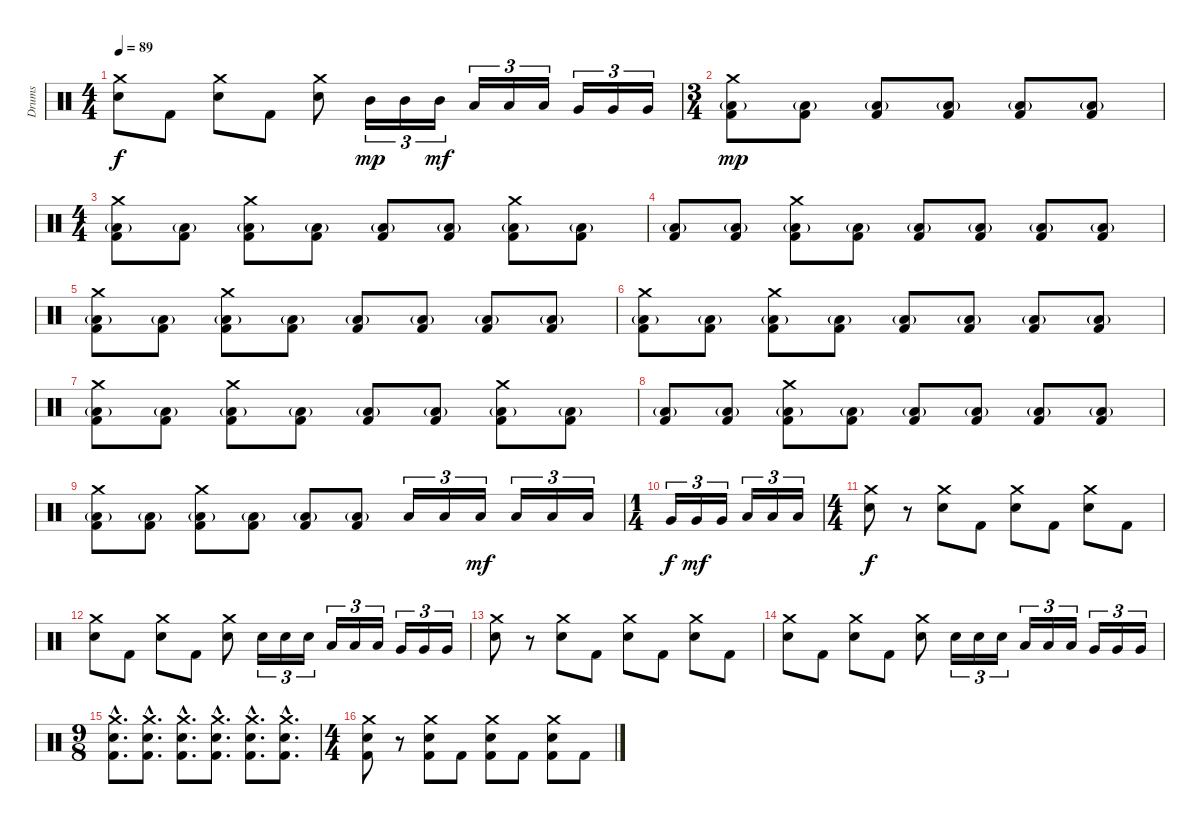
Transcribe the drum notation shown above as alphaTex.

\track ("Drums" "Drums") {instrument percussion}
\staff {score}
\articulation defaults
\ts (4 4)
\tempo 89
\clef neutral
\ks c
("Crash medium (hit)" "Electric Snare (hit)").8{dy f} "Kick (hit) 2".8 ("Crash medium (hit)" "Electric Snare (hit)").8 "Kick (hit) 2".8 ("Crash medium (hit)" "Electric Snare (hit)").8 "Mid Tom (hit)".16{tu (3 2) dy mp} "Mid Tom (hit)".16{tu (3 2)} "Mid Tom (hit)".16{tu (3 2) dy mf} "Low Tom (hit)".16{tu (3 2)} "Low Tom (hit)".16{tu (3 2)} "Low Tom (hit)".16{tu (3 2)} "Very Low Tom (hit)".16{tu (3 2)} "Very Low Tom (hit)".16{tu (3 2)} "Very Low Tom (hit)".16{tu (3 2)} |
\ts (3 4)
("Crash medium (hit)" "Low Floor Tom (hit)"{g} "Kick (hit) 2").8{dy mp} ("Low Floor Tom (hit)"{g} "Kick (hit) 2").8 ("Low Floor Tom (hit)"{g} "Kick (hit) 2").8 ("Low Floor Tom (hit)"{g} "Kick (hit) 2").8 ("Low Floor Tom (hit)"{g} "Kick (hit) 2").8 ("Low Floor Tom (hit)"{g} "Kick (hit) 2").8 |
\ts (4 4)
("Crash medium (hit)" "Low Floor Tom (hit)"{g} "Kick (hit) 2").8 ("Low Floor Tom (hit)"{g} "Kick (hit) 2").8 ("Crash medium (hit)" "Low Floor Tom (hit)"{g} "Kick (hit) 2").8 ("Low Floor Tom (hit)"{g} "Kick (hit) 2").8 ("Low Floor Tom (hit)"{g} "Kick (hit) 2").8 ("Low Floor Tom (hit)"{g} "Kick (hit) 2").8 ("Crash medium (hit)" "Low Floor Tom (hit)"{g} "Kick (hit) 2").8 ("Low Floor Tom (hit)"{g} "Kick (hit) 2").8 |
("Low Floor Tom (hit)"{g} "Kick (hit) 2").8 ("Low Floor Tom (hit)"{g} "Kick (hit) 2").8 ("Crash medium (hit)" "Low Floor Tom (hit)"{g} "Kick (hit) 2").8 ("Low Floor Tom (hit)"{g} "Kick (hit) 2").8 ("Low Floor Tom (hit)"{g} "Kick (hit) 2").8 ("Low Floor Tom (hit)"{g} "Kick (hit) 2").8 ("Low Floor Tom (hit)"{g} "Kick (hit) 2").8 ("Low Floor Tom (hit)"{g} "Kick (hit) 2").8 |
("Crash medium (hit)" "Low Floor Tom (hit)"{g} "Kick (hit) 2").8 ("Low Floor Tom (hit)"{g} "Kick (hit) 2").8 ("Crash medium (hit)" "Low Floor Tom (hit)"{g} "Kick (hit) 2").8 ("Low Floor Tom (hit)"{g} "Kick (hit) 2").8 ("Low Floor Tom (hit)"{g} "Kick (hit) 2").8 ("Low Floor Tom (hit)"{g} "Kick (hit) 2").8 ("Low Floor Tom (hit)"{g} "Kick (hit) 2").8 ("Low Floor Tom (hit)"{g} "Kick (hit) 2").8 |
("Crash medium (hit)" "Low Floor Tom (hit)"{g} "Kick (hit) 2").8 ("Low Floor Tom (hit)"{g} "Kick (hit) 2").8 ("Crash medium (hit)" "Low Floor Tom (hit)"{g} "Kick (hit) 2").8 ("Low Floor Tom (hit)"{g} "Kick (hit) 2").8 ("Low Floor Tom (hit)"{g} "Kick (hit) 2").8 ("Low Floor Tom (hit)"{g} "Kick (hit) 2").8 ("Low Floor Tom (hit)"{g} "Kick (hit) 2").8 ("Low Floor Tom (hit)"{g} "Kick (hit) 2").8 |
("Crash medium (hit)" "Low Floor Tom (hit)"{g} "Kick (hit) 2").8 ("Low Floor Tom (hit)"{g} "Kick (hit) 2").8 ("Crash medium (hit)" "Low Floor Tom (hit)"{g} "Kick (hit) 2").8 ("Low Floor Tom (hit)"{g} "Kick (hit) 2").8 ("Low Floor Tom (hit)"{g} "Kick (hit) 2").8 ("Low Floor Tom (hit)"{g} "Kick (hit) 2").8 ("Crash medium (hit)" "Low Floor Tom (hit)"{g} "Kick (hit) 2").8 ("Low Floor Tom (hit)"{g} "Kick (hit) 2").8 |
("Low Floor Tom (hit)"{g} "Kick (hit) 2").8 ("Low Floor Tom (hit)"{g} "Kick (hit) 2").8 ("Crash medium (hit)" "Low Floor Tom (hit)"{g} "Kick (hit) 2").8 ("Low Floor Tom (hit)"{g} "Kick (hit) 2").8 ("Low Floor Tom (hit)"{g} "Kick (hit) 2").8 ("Low Floor Tom (hit)"{g} "Kick (hit) 2").8 ("Low Floor Tom (hit)"{g} "Kick (hit) 2").8 ("Low Floor Tom (hit)"{g} "Kick (hit) 2").8 |
("Crash medium (hit)" "Low Floor Tom (hit)"{g} "Kick (hit) 2").8 ("Low Floor Tom (hit)"{g} "Kick (hit) 2").8 ("Crash medium (hit)" "Low Floor Tom (hit)"{g} "Kick (hit) 2").8 ("Low Floor Tom (hit)"{g} "Kick (hit) 2").8 ("Low Floor Tom (hit)"{g} "Kick (hit) 2").8 ("Low Floor Tom (hit)"{g} "Kick (hit) 2").8 "Low Tom (hit)".16{tu (3 2)} "Low Tom (hit)".16{tu (3 2)} "Low Tom (hit)".16{tu (3 2) dy mf} "Low Tom (hit)".16{tu (3 2)} "Low Tom (hit)".16{tu (3 2)} "Low Tom (hit)".16{tu (3 2)} |
\ts (1 4)
"Very Low Tom (hit)".16{tu (3 2) dy f} "Very Low Tom (hit)".16{tu (3 2) dy mf} "Very Low Tom (hit)".16{tu (3 2)} "Low Floor Tom (hit)".16{tu (3 2)} "Low Floor Tom (hit)".16{tu (3 2)} "Low Floor Tom (hit)".16{tu (3 2)} |
\ts (4 4)
("Crash medium (hit)" "Electric Snare (hit)").8{dy f} r.8 ("Crash medium (hit)" "Electric Snare (hit)").8 "Kick (hit) 2".8 ("Crash medium (hit)" "Electric Snare (hit)").8 "Kick (hit) 2".8 ("Crash medium (hit)" "Electric Snare (hit)").8 "Kick (hit) 2".8 |
("Crash medium (hit)" "Electric Snare (hit)").8 "Kick (hit) 2".8 ("Crash medium (hit)" "Electric Snare (hit)").8 "Kick (hit) 2".8 ("Crash medium (hit)" "Electric Snare (hit)").8 "Electric Snare (hit)".16{tu (3 2)} "Electric Snare (hit)".16{tu (3 2)} "Electric Snare (hit)".16{tu (3 2)} "Low Tom (hit)".16{tu (3 2)} "Low Tom (hit)".16{tu (3 2)} "Low Tom (hit)".16{tu (3 2)} "Very Low Tom (hit)".16{tu (3 2)} "Very Low Tom (hit)".16{tu (3 2)} "Very Low Tom (hit)".16{tu (3 2)} |
("Crash medium (hit)" "Electric Snare (hit)").8 r.8 ("Crash medium (hit)" "Electric Snare (hit)").8 "Kick (hit) 2".8 ("Crash medium (hit)" "Electric Snare (hit)").8 "Kick (hit) 2".8 ("Crash medium (hit)" "Electric Snare (hit)").8 "Kick (hit) 2".8 |
("Crash medium (hit)" "Electric Snare (hit)").8 "Kick (hit) 2".8 ("Crash medium (hit)" "Electric Snare (hit)").8 "Kick (hit) 2".8 ("Crash medium (hit)" "Electric Snare (hit)").8 "Electric Snare (hit)".16{tu (3 2)} "Electric Snare (hit)".16{tu (3 2)} "Electric Snare (hit)".16{tu (3 2)} "Low Tom (hit)".16{tu (3 2)} "Low Tom (hit)".16{tu (3 2)} "Low Tom (hit)".16{tu (3 2)} "Very Low Tom (hit)".16{tu (3 2)} "Very Low Tom (hit)".16{tu (3 2)} "Very Low Tom (hit)".16{tu (3 2)} |
\ts (9 8)
("Crash medium (hit)"{hac} "Electric Snare (hit)"{hac} "Kick (hit) 2"{hac}).8{d} ("Crash medium (hit)"{hac} "Electric Snare (hit)"{hac} "Kick (hit) 2"{hac}).8{d} ("Crash medium (hit)"{hac} "Electric Snare (hit)"{hac} "Kick (hit) 2"{hac}).8{d} ("Crash medium (hit)"{hac} "Electric Snare (hit)"{hac} "Kick (hit) 2"{hac}).8{d} ("Crash medium (hit)"{hac} "Electric Snare (hit)"{hac} "Kick (hit) 2"{hac}).8{d} ("Crash medium (hit)"{hac} "Electric Snare (hit)"{hac} "Kick (hit) 2"{hac}).8{d} |
\ts (4 4)
("Crash medium (hit)" "Electric Snare (hit)" "Kick (hit) 2").8 r.8 ("Crash medium (hit)" "Electric Snare (hit)" "Kick (hit) 2").8 "Kick (hit) 2".8 ("Crash medium (hit)" "Electric Snare (hit)" "Kick (hit) 2").8 "Kick (hit) 2".8 ("Crash medium (hit)" "Electric Snare (hit)" "Kick (hit) 2").8 "Kick (hit) 2".8
